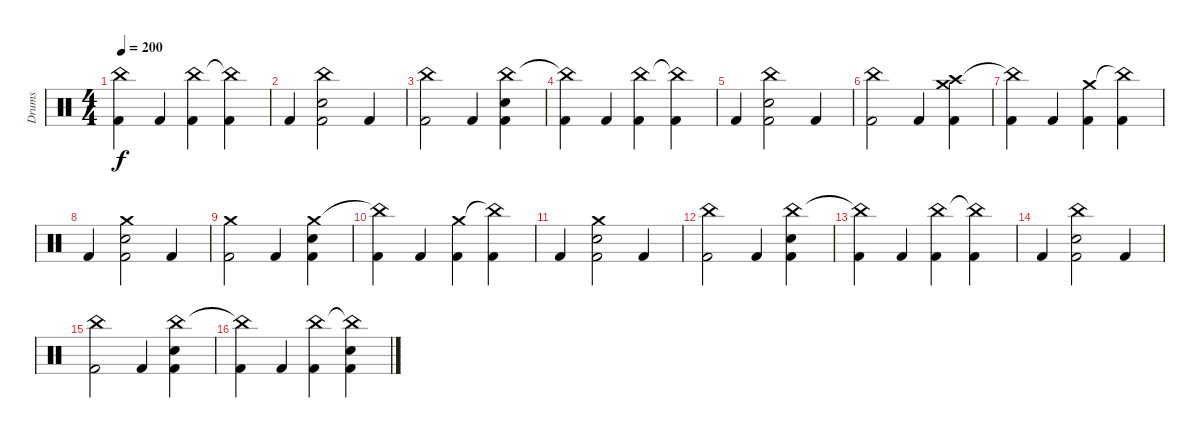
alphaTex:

\track ("Drums" "Drums") {instrument percussion}
\staff {score}
\articulation defaults
\ts (4 4)
\tempo 200
\clef neutral
\ks c
("China (hit)"{t} "Kick (hit) 2").4{dy f} "Kick (hit) 2".4 ("China (hit)" "Kick (hit) 2").4 ("China (hit)"{t} "Kick (hit) 2").4 |
"Kick (hit) 2".4 ("China (hit)" "Electric Snare (hit)" "Kick (hit) 2").2 "Kick (hit) 2".4 |
("China (hit)" "Kick (hit) 2").2 "Kick (hit) 2".4 ("China (hit)" "Electric Snare (hit)" "Kick (hit) 2").4 |
("China (hit)"{t} "Kick (hit) 2").4 "Kick (hit) 2".4 ("China (hit)" "Kick (hit) 2").4 ("China (hit)"{t} "Kick (hit) 2").4 |
"Kick (hit) 2".4 ("China (hit)" "Electric Snare (hit)" "Kick (hit) 2").2 "Kick (hit) 2".4 |
("China (hit)" "Kick (hit) 2").2 "Kick (hit) 2".4 ("Crash high (hit)" "Crash medium (hit)" "Kick (hit) 2").4 |
("China (hit)"{t} "Kick (hit) 2").4 "Kick (hit) 2".4 ("Crash medium (hit)" "Kick (hit) 2").4 ("China (hit)"{t} "Kick (hit) 2").4 |
"Kick (hit) 2".4 ("Crash medium (hit)" "Electric Snare (hit)" "Kick (hit) 2").2 "Kick (hit) 2".4 |
("Crash medium (hit)" "Kick (hit) 2").2 "Kick (hit) 2".4 ("Crash medium (hit)" "Electric Snare (hit)" "Kick (hit) 2").4 |
("China (hit)"{t} "Kick (hit) 2").4 "Kick (hit) 2".4 ("Crash medium (hit)" "Kick (hit) 2").4 ("China (hit)"{t} "Kick (hit) 2").4 |
"Kick (hit) 2".4 ("Crash medium (hit)" "Electric Snare (hit)" "Kick (hit) 2").2 "Kick (hit) 2".4 |
("China (hit)" "Kick (hit) 2").2 "Kick (hit) 2".4 ("China (hit)" "Electric Snare (hit)" "Kick (hit) 2").4 |
("China (hit)"{t} "Kick (hit) 2").4 "Kick (hit) 2".4 ("China (hit)" "Kick (hit) 2").4 ("China (hit)"{t} "Kick (hit) 2").4 |
"Kick (hit) 2".4 ("China (hit)" "Electric Snare (hit)" "Kick (hit) 2").2 "Kick (hit) 2".4 |
("China (hit)" "Kick (hit) 2").2 "Kick (hit) 2".4 ("China (hit)" "Electric Snare (hit)" "Kick (hit) 2").4 |
("China (hit)"{t} "Kick (hit) 2").4 "Kick (hit) 2".4 ("China (hit)" "Kick (hit) 2").4 ("China (hit)"{t} "Electric Snare (hit)" "Kick (hit) 2").4
